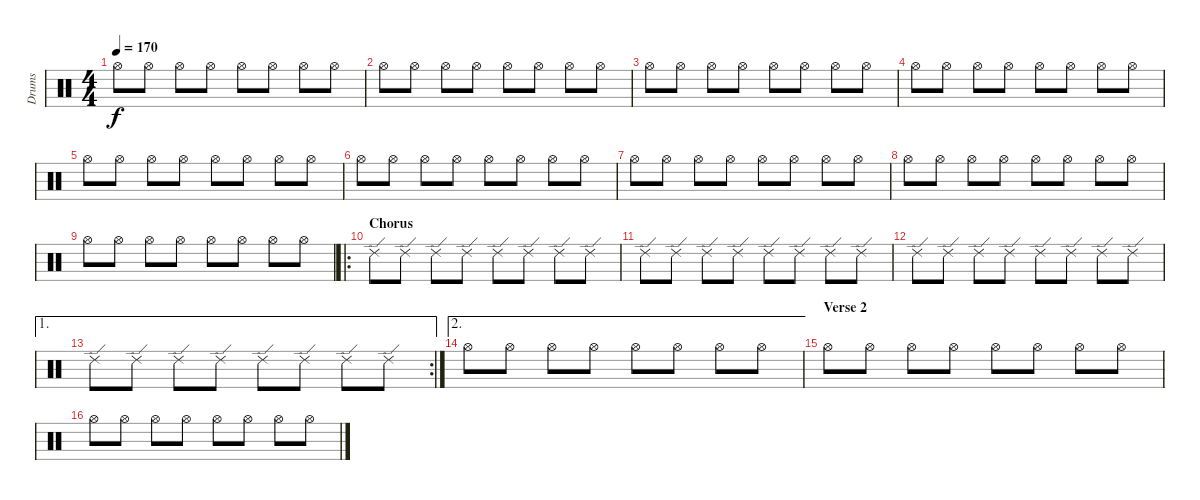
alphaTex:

\track ("Drums" "Drums") {instrument percussion}
\staff {score}
\articulation defaults
\ts (4 4)
\tempo 170
\clef neutral
\ks c "Hi-Hat (open)".8{dy f} "Hi-Hat (open)".8 "Hi-Hat (open)".8 "Hi-Hat (open)".8 "Hi-Hat (open)".8 "Hi-Hat (open)".8 "Hi-Hat (open)".8 "Hi-Hat (open)".8
|
"Hi-Hat (open)".8 "Hi-Hat (open)".8 "Hi-Hat (open)".8 "Hi-Hat (open)".8 "Hi-Hat (open)".8 "Hi-Hat (open)".8 "Hi-Hat (open)".8 "Hi-Hat (open)".8 |
"Hi-Hat (open)".8 "Hi-Hat (open)".8 "Hi-Hat (open)".8 "Hi-Hat (open)".8 "Hi-Hat (open)".8 "Hi-Hat (open)".8 "Hi-Hat (open)".8 "Hi-Hat (open)".8 |
"Hi-Hat (open)".8 "Hi-Hat (open)".8 "Hi-Hat (open)".8 "Hi-Hat (open)".8 "Hi-Hat (open)".8 "Hi-Hat (open)".8 "Hi-Hat (open)".8 "Hi-Hat (open)".8 |
"Hi-Hat (open)".8 "Hi-Hat (open)".8 "Hi-Hat (open)".8 "Hi-Hat (open)".8 "Hi-Hat (open)".8 "Hi-Hat (open)".8 "Hi-Hat (open)".8 "Hi-Hat (open)".8 |
"Hi-Hat (open)".8 "Hi-Hat (open)".8 "Hi-Hat (open)".8 "Hi-Hat (open)".8 "Hi-Hat (open)".8 "Hi-Hat (open)".8 "Hi-Hat (open)".8 "Hi-Hat (open)".8 |
"Hi-Hat (open)".8 "Hi-Hat (open)".8 "Hi-Hat (open)".8 "Hi-Hat (open)".8 "Hi-Hat (open)".8 "Hi-Hat (open)".8 "Hi-Hat (open)".8 "Hi-Hat (open)".8 |
"Hi-Hat (open)".8 "Hi-Hat (open)".8 "Hi-Hat (open)".8 "Hi-Hat (open)".8 "Hi-Hat (open)".8 "Hi-Hat (open)".8 "Hi-Hat (open)".8 "Hi-Hat (open)".8 |
"Hi-Hat (open)".8 "Hi-Hat (open)".8 "Hi-Hat (open)".8 "Hi-Hat (open)".8 "Hi-Hat (open)".8 "Hi-Hat (open)".8 "Hi-Hat (open)".8 "Hi-Hat (open)".8 |
\ro
\section ("" "Chorus")
"Ride (edge) 2".8 "Ride (edge) 2".8 "Ride (edge) 2".8 "Ride (edge) 2".8 "Ride (edge) 2".8 "Ride (edge) 2".8 "Ride (edge) 2".8 "Ride (edge) 2".8 |
"Ride (edge) 2".8 "Ride (edge) 2".8 "Ride (edge) 2".8 "Ride (edge) 2".8 "Ride (edge) 2".8 "Ride (edge) 2".8 "Ride (edge) 2".8 "Ride (edge) 2".8 |
"Ride (edge) 2".8 "Ride (edge) 2".8 "Ride (edge) 2".8 "Ride (edge) 2".8 "Ride (edge) 2".8 "Ride (edge) 2".8 "Ride (edge) 2".8 "Ride (edge) 2".8 |
\ae 1
\rc 2 "Ride (edge) 2".8 "Ride (edge) 2".8 "Ride (edge) 2".8 "Ride (edge) 2".8 "Ride (edge) 2".8 "Ride (edge) 2".8 "Ride (edge) 2".8 "Ride (edge) 2".8
|
\ae 2 "Hi-Hat (open)".8 "Hi-Hat (open)".8 "Hi-Hat (open)".8 "Hi-Hat (open)".8 "Hi-Hat (open)".8 "Hi-Hat (open)".8 "Hi-Hat (open)".8 "Hi-Hat (open)".8
|
\section ("" "Verse 2")
"Hi-Hat (open)".8 "Hi-Hat (open)".8 "Hi-Hat (open)".8 "Hi-Hat (open)".8 "Hi-Hat (open)".8 "Hi-Hat (open)".8 "Hi-Hat (open)".8 "Hi-Hat (open)".8 |
"Hi-Hat (open)".8 "Hi-Hat (open)".8 "Hi-Hat (open)".8 "Hi-Hat (open)".8 "Hi-Hat (open)".8 "Hi-Hat (open)".8 "Hi-Hat (open)".8 "Hi-Hat (open)".8
